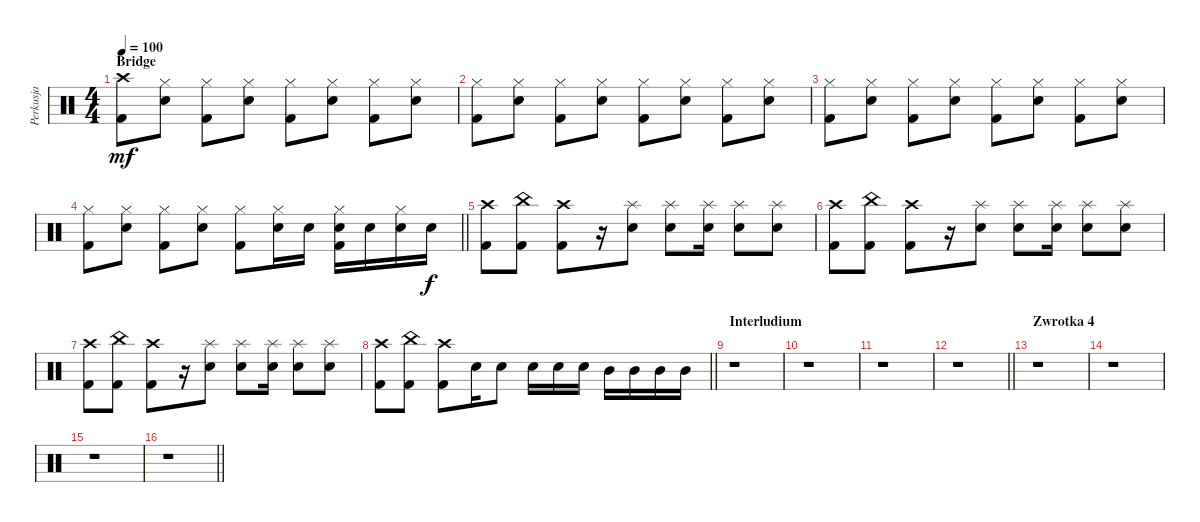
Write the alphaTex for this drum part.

\track ("Perkusja" "Perkusja") {instrument percussion}
\staff {score}
\articulation defaults
\ts (4 4)
\section ("" "Bridge")
\tempo 100
\clef neutral
\ks c
("Kick (hit) 2" "Crash high (hit)").8{dy mf} ("Snare (hit) 2" "Hi-Hat (closed)").8 ("Kick (hit) 2" "Hi-Hat (closed)").8 ("Snare (hit) 2" "Hi-Hat (closed)").8 ("Kick (hit) 2" "Hi-Hat (closed)").8 ("Snare (hit) 2" "Hi-Hat (closed)").8 ("Kick (hit) 2" "Hi-Hat (closed)").8 ("Snare (hit) 2" "Hi-Hat (closed)").8 |
("Kick (hit) 2" "Hi-Hat (closed)").8 ("Snare (hit) 2" "Hi-Hat (closed)").8 ("Kick (hit) 2" "Hi-Hat (closed)").8 ("Snare (hit) 2" "Hi-Hat (closed)").8 ("Kick (hit) 2" "Hi-Hat (closed)").8 ("Snare (hit) 2" "Hi-Hat (closed)").8 ("Kick (hit) 2" "Hi-Hat (closed)").8 ("Snare (hit) 2" "Hi-Hat (closed)").8 |
("Kick (hit) 2" "Hi-Hat (closed)").8 ("Snare (hit) 2" "Hi-Hat (closed)").8 ("Kick (hit) 2" "Hi-Hat (closed)").8 ("Snare (hit) 2" "Hi-Hat (closed)").8 ("Kick (hit) 2" "Hi-Hat (closed)").8 ("Snare (hit) 2" "Hi-Hat (closed)").8 ("Kick (hit) 2" "Hi-Hat (closed)").8 ("Snare (hit) 2" "Hi-Hat (closed)").8 |
\barLineRight lightlight
("Kick (hit) 2" "Hi-Hat (closed)").8 ("Snare (hit) 2" "Hi-Hat (closed)").8 ("Kick (hit) 2" "Hi-Hat (closed)").8 ("Snare (hit) 2" "Hi-Hat (closed)").8 ("Kick (hit) 2" "Hi-Hat (closed)").8 ("Snare (hit) 2" "Hi-Hat (closed)").16 "Snare (hit) 2".16 ("Snare (hit) 2" "Kick (hit) 2" "Hi-Hat (closed)").16 "Snare (hit) 2".16 ("Snare (hit) 2" "Hi-Hat (closed)").16 "Snare (hit) 2".16{dy f} |
("Kick (hit) 2" "Crash high (hit)").8 ("Kick (hit) 2" "China (hit)").8 ("Kick (hit) 2" "Crash high (hit)").8 r.16 ("Snare (hit) 2" "Splash (hit)").8 ("Snare (hit) 2" "Splash (hit)").8 ("Snare (hit) 2" "Splash (hit)").16 ("Snare (hit) 2" "Splash (hit)").8 ("Snare (hit) 2" "Splash (hit)").8 |
("Kick (hit) 2" "Crash high (hit)").8 ("Kick (hit) 2" "China (hit)").8 ("Kick (hit) 2" "Crash high (hit)").8 r.16 ("Snare (hit) 2" "Splash (hit)").8 ("Snare (hit) 2" "Splash (hit)").8 ("Snare (hit) 2" "Splash (hit)").16 ("Snare (hit) 2" "Splash (hit)").8 ("Snare (hit) 2" "Splash (hit)").8 |
("Kick (hit) 2" "Crash high (hit)").8 ("Kick (hit) 2" "China (hit)").8 ("Kick (hit) 2" "Crash high (hit)").8 r.16 ("Snare (hit) 2" "Splash (hit)").8 ("Snare (hit) 2" "Splash (hit)").8 ("Snare (hit) 2" "Splash (hit)").16 ("Snare (hit) 2" "Splash (hit)").8 ("Snare (hit) 2" "Splash (hit)").8 |
\barLineRight lightlight
("Kick (hit) 2" "Crash high (hit)").8 ("Kick (hit) 2" "China (hit)").8 ("Kick (hit) 2" "Crash high (hit)").8 "Snare (hit) 2".16 "Snare (hit) 2".8 "Snare (hit) 2".16 "Snare (hit) 2".16 "Snare (hit) 2".16 "Mid Tom (hit)".16 "Mid Tom (hit)".16 "Mid Tom (hit)".16 "Mid Tom (hit)".16 |
\section ("" "Interludium")
r.1 |
r.1 |
r.1 |
\barLineRight lightlight
r.1 |
\section ("" "Zwrotka 4")
r.1 |
r.1 |
r.1 |
\barLineRight lightlight
r.1
